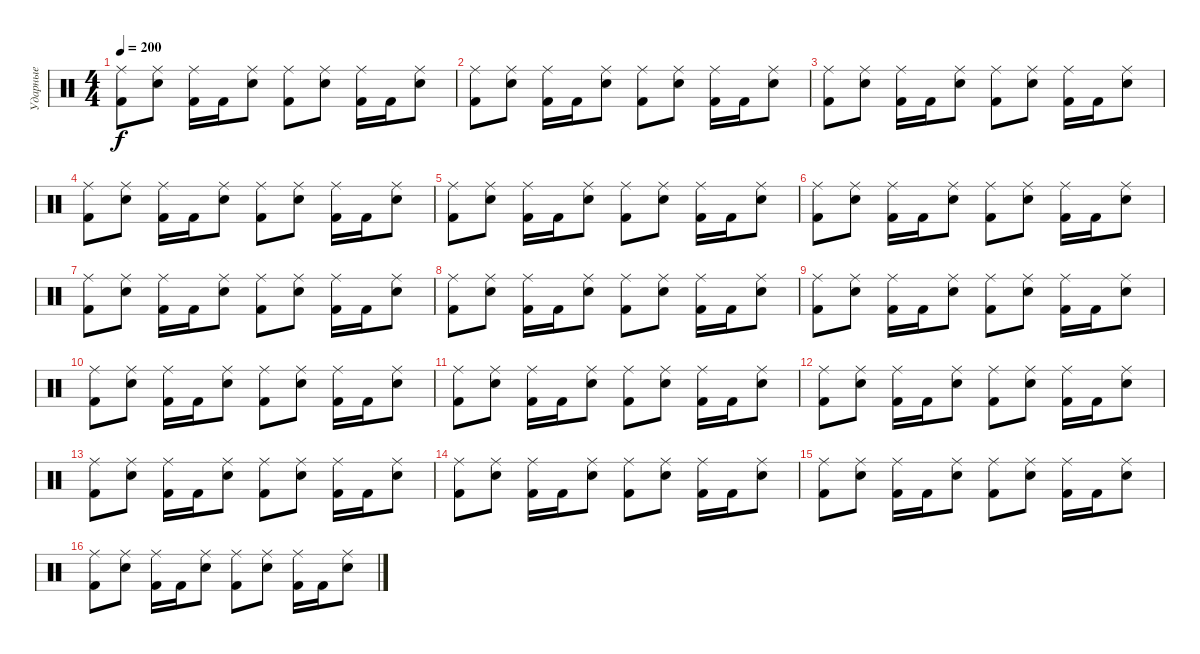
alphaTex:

\track ("Ударные" "Ударные") {instrument percussion}
\staff {score}
\articulation defaults
\ts (4 4)
\tempo 200
\clef neutral
\ks c
("Kick (hit) 2" "Ride (middle)").8{dy f} ("Electric Snare (hit)" "Ride (middle)").8 ("Kick (hit) 2" "Ride (middle)").16 "Kick (hit) 2".16 ("Electric Snare (hit)" "Ride (middle)").8 ("Kick (hit) 2" "Ride (middle)").8 ("Electric Snare (hit)" "Ride (middle)").8 ("Kick (hit) 2" "Ride (middle)").16 "Kick (hit) 2".16 ("Electric Snare (hit)" "Ride (middle)").8 |
("Kick (hit) 2" "Ride (middle)").8 ("Electric Snare (hit)" "Ride (middle)").8 ("Kick (hit) 2" "Ride (middle)").16 "Kick (hit) 2".16 ("Electric Snare (hit)" "Ride (middle)").8 ("Kick (hit) 2" "Ride (middle)").8 ("Electric Snare (hit)" "Ride (middle)").8 ("Kick (hit) 2" "Ride (middle)").16 "Kick (hit) 2".16 ("Electric Snare (hit)" "Ride (middle)").8 |
("Kick (hit) 2" "Ride (middle)").8 ("Electric Snare (hit)" "Ride (middle)").8 ("Kick (hit) 2" "Ride (middle)").16 "Kick (hit) 2".16 ("Electric Snare (hit)" "Ride (middle)").8 ("Kick (hit) 2" "Ride (middle)").8 ("Electric Snare (hit)" "Ride (middle)").8 ("Kick (hit) 2" "Ride (middle)").16 "Kick (hit) 2".16 ("Electric Snare (hit)" "Ride (middle)").8 |
("Kick (hit) 2" "Ride (middle)").8 ("Electric Snare (hit)" "Ride (middle)").8 ("Kick (hit) 2" "Ride (middle)").16 "Kick (hit) 2".16 ("Electric Snare (hit)" "Ride (middle)").8 ("Kick (hit) 2" "Ride (middle)").8 ("Electric Snare (hit)" "Ride (middle)").8 ("Kick (hit) 2" "Ride (middle)").16 "Kick (hit) 2".16 ("Electric Snare (hit)" "Ride (middle)").8 |
("Kick (hit) 2" "Ride (middle)").8 ("Electric Snare (hit)" "Ride (middle)").8 ("Kick (hit) 2" "Ride (middle)").16 "Kick (hit) 2".16 ("Electric Snare (hit)" "Ride (middle)").8 ("Kick (hit) 2" "Ride (middle)").8 ("Electric Snare (hit)" "Ride (middle)").8 ("Kick (hit) 2" "Ride (middle)").16 "Kick (hit) 2".16 ("Electric Snare (hit)" "Ride (middle)").8 |
("Kick (hit) 2" "Ride (middle)").8 ("Electric Snare (hit)" "Ride (middle)").8 ("Kick (hit) 2" "Ride (middle)").16 "Kick (hit) 2".16 ("Electric Snare (hit)" "Ride (middle)").8 ("Kick (hit) 2" "Ride (middle)").8 ("Electric Snare (hit)" "Ride (middle)").8 ("Kick (hit) 2" "Ride (middle)").16 "Kick (hit) 2".16 ("Electric Snare (hit)" "Ride (middle)").8 |
("Kick (hit) 2" "Ride (middle)").8 ("Electric Snare (hit)" "Ride (middle)").8 ("Kick (hit) 2" "Ride (middle)").16 "Kick (hit) 2".16 ("Electric Snare (hit)" "Ride (middle)").8 ("Kick (hit) 2" "Ride (middle)").8 ("Electric Snare (hit)" "Ride (middle)").8 ("Kick (hit) 2" "Ride (middle)").16 "Kick (hit) 2".16 ("Electric Snare (hit)" "Ride (middle)").8 |
("Kick (hit) 2" "Ride (middle)").8 ("Electric Snare (hit)" "Ride (middle)").8 ("Kick (hit) 2" "Ride (middle)").16 "Kick (hit) 2".16 ("Electric Snare (hit)" "Ride (middle)").8 ("Kick (hit) 2" "Ride (middle)").8 ("Electric Snare (hit)" "Ride (middle)").8 ("Kick (hit) 2" "Ride (middle)").16 "Kick (hit) 2".16 ("Electric Snare (hit)" "Ride (middle)").8 |
("Kick (hit) 2" "Ride (middle)").8 ("Electric Snare (hit)" "Ride (middle)").8 ("Kick (hit) 2" "Ride (middle)").16 "Kick (hit) 2".16 ("Electric Snare (hit)" "Ride (middle)").8 ("Kick (hit) 2" "Ride (middle)").8 ("Electric Snare (hit)" "Ride (middle)").8 ("Kick (hit) 2" "Ride (middle)").16 "Kick (hit) 2".16 ("Electric Snare (hit)" "Ride (middle)").8 |
("Kick (hit) 2" "Ride (middle)").8 ("Electric Snare (hit)" "Ride (middle)").8 ("Kick (hit) 2" "Ride (middle)").16 "Kick (hit) 2".16 ("Electric Snare (hit)" "Ride (middle)").8 ("Kick (hit) 2" "Ride (middle)").8 ("Electric Snare (hit)" "Ride (middle)").8 ("Kick (hit) 2" "Ride (middle)").16 "Kick (hit) 2".16 ("Electric Snare (hit)" "Ride (middle)").8 |
("Kick (hit) 2" "Ride (middle)").8 ("Electric Snare (hit)" "Ride (middle)").8 ("Kick (hit) 2" "Ride (middle)").16 "Kick (hit) 2".16 ("Electric Snare (hit)" "Ride (middle)").8 ("Kick (hit) 2" "Ride (middle)").8 ("Electric Snare (hit)" "Ride (middle)").8 ("Kick (hit) 2" "Ride (middle)").16 "Kick (hit) 2".16 ("Electric Snare (hit)" "Ride (middle)").8 |
("Kick (hit) 2" "Ride (middle)").8 ("Electric Snare (hit)" "Ride (middle)").8 ("Kick (hit) 2" "Ride (middle)").16 "Kick (hit) 2".16 ("Electric Snare (hit)" "Ride (middle)").8 ("Kick (hit) 2" "Ride (middle)").8 ("Electric Snare (hit)" "Ride (middle)").8 ("Kick (hit) 2" "Ride (middle)").16 "Kick (hit) 2".16 ("Electric Snare (hit)" "Ride (middle)").8 |
("Kick (hit) 2" "Ride (middle)").8 ("Electric Snare (hit)" "Ride (middle)").8 ("Kick (hit) 2" "Ride (middle)").16 "Kick (hit) 2".16 ("Electric Snare (hit)" "Ride (middle)").8 ("Kick (hit) 2" "Ride (middle)").8 ("Electric Snare (hit)" "Ride (middle)").8 ("Kick (hit) 2" "Ride (middle)").16 "Kick (hit) 2".16 ("Electric Snare (hit)" "Ride (middle)").8 |
("Kick (hit) 2" "Ride (middle)").8 ("Electric Snare (hit)" "Ride (middle)").8 ("Kick (hit) 2" "Ride (middle)").16 "Kick (hit) 2".16 ("Electric Snare (hit)" "Ride (middle)").8 ("Kick (hit) 2" "Ride (middle)").8 ("Electric Snare (hit)" "Ride (middle)").8 ("Kick (hit) 2" "Ride (middle)").16 "Kick (hit) 2".16 ("Electric Snare (hit)" "Ride (middle)").8 |
("Kick (hit) 2" "Ride (middle)").8 ("Electric Snare (hit)" "Ride (middle)").8 ("Kick (hit) 2" "Ride (middle)").16 "Kick (hit) 2".16 ("Electric Snare (hit)" "Ride (middle)").8 ("Kick (hit) 2" "Ride (middle)").8 ("Electric Snare (hit)" "Ride (middle)").8 ("Kick (hit) 2" "Ride (middle)").16 "Kick (hit) 2".16 ("Electric Snare (hit)" "Ride (middle)").8 |
("Kick (hit) 2" "Ride (middle)").8 ("Electric Snare (hit)" "Ride (middle)").8 ("Kick (hit) 2" "Ride (middle)").16 "Kick (hit) 2".16 ("Electric Snare (hit)" "Ride (middle)").8 ("Kick (hit) 2" "Ride (middle)").8 ("Electric Snare (hit)" "Ride (middle)").8 ("Kick (hit) 2" "Ride (middle)").16 "Kick (hit) 2".16 ("Electric Snare (hit)" "Ride (middle)").8
